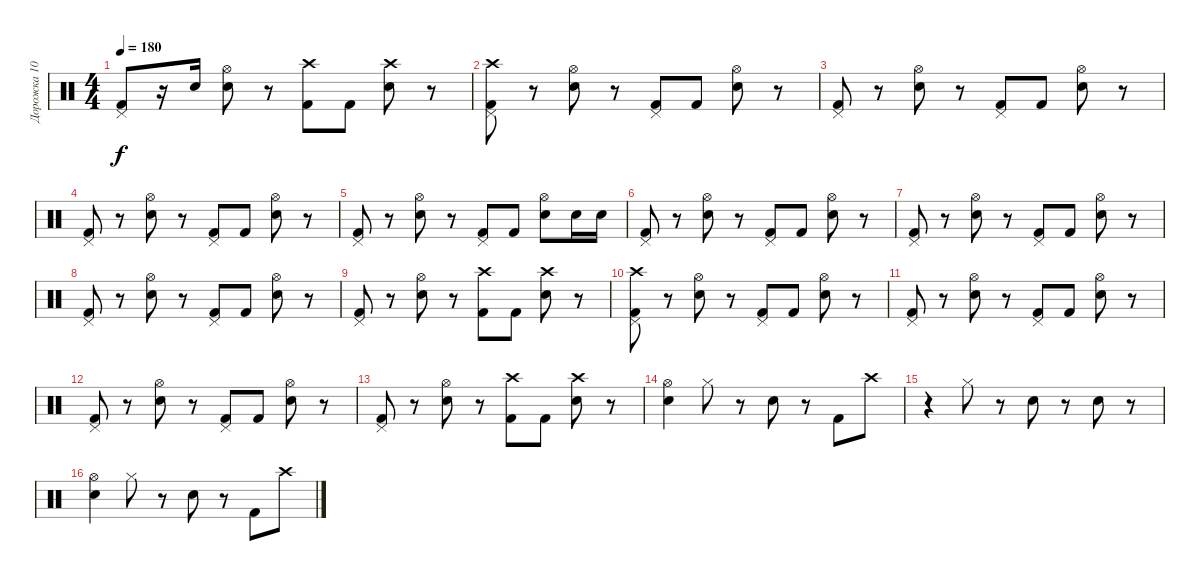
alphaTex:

\track ("Дорожка 10" "Дорожка 10") {instrument percussion}
\staff {score}
\articulation defaults
\ts (4 4)
\tempo 180
\clef neutral
\ks c
("Kick (hit) 2" "Pedal Hi-Hat (hit)").8{dy f} r.16 "Snare (hit) 2".16 ("Snare (hit) 2" "Hi-Hat (open)").8 r.8 ("Kick (hit) 2" "Crash high (hit)").8 "Kick (hit) 2".8 ("Snare (hit) 2" "Crash high (hit)").8 r.8 |
("Kick (hit) 2" "Crash high (hit)" "Pedal Hi-Hat (hit)").8 r.8 ("Snare (hit) 2" "Hi-Hat (open)").8 r.8 ("Kick (hit) 2" "Pedal Hi-Hat (hit)").8 "Kick (hit) 2".8 ("Snare (hit) 2" "Hi-Hat (open)").8 r.8 |
("Kick (hit) 2" "Pedal Hi-Hat (hit)").8 r.8 ("Snare (hit) 2" "Hi-Hat (open)").8 r.8 ("Kick (hit) 2" "Pedal Hi-Hat (hit)").8 "Kick (hit) 2".8 ("Snare (hit) 2" "Hi-Hat (open)").8 r.8 |
("Kick (hit) 2" "Pedal Hi-Hat (hit)").8 r.8 ("Snare (hit) 2" "Hi-Hat (open)").8 r.8 ("Kick (hit) 2" "Pedal Hi-Hat (hit)").8 "Kick (hit) 2".8 ("Snare (hit) 2" "Hi-Hat (open)").8 r.8 |
("Kick (hit) 2" "Pedal Hi-Hat (hit)").8 r.8 ("Snare (hit) 2" "Hi-Hat (open)").8 r.8 ("Kick (hit) 2" "Pedal Hi-Hat (hit)").8 "Kick (hit) 2".8 ("Snare (hit) 2" "Hi-Hat (open)").8 "Snare (hit) 2".16 "Snare (hit) 2".16 |
("Kick (hit) 2" "Pedal Hi-Hat (hit)").8 r.8 ("Snare (hit) 2" "Hi-Hat (open)").8 r.8 ("Kick (hit) 2" "Pedal Hi-Hat (hit)").8 "Kick (hit) 2".8 ("Snare (hit) 2" "Hi-Hat (open)").8 r.8 |
("Kick (hit) 2" "Pedal Hi-Hat (hit)").8 r.8 ("Snare (hit) 2" "Hi-Hat (open)").8 r.8 ("Kick (hit) 2" "Pedal Hi-Hat (hit)").8 "Kick (hit) 2".8 ("Snare (hit) 2" "Hi-Hat (open)").8 r.8 |
("Kick (hit) 2" "Pedal Hi-Hat (hit)").8 r.8 ("Snare (hit) 2" "Hi-Hat (open)").8 r.8 ("Kick (hit) 2" "Pedal Hi-Hat (hit)").8 "Kick (hit) 2".8 ("Snare (hit) 2" "Hi-Hat (open)").8 r.8 |
("Kick (hit) 2" "Pedal Hi-Hat (hit)").8 r.8 ("Snare (hit) 2" "Hi-Hat (open)").8 r.8 ("Kick (hit) 2" "Crash high (hit)").8 "Kick (hit) 2".8 ("Snare (hit) 2" "Crash high (hit)").8 r.8 |
("Kick (hit) 2" "Crash high (hit)" "Pedal Hi-Hat (hit)").8 r.8 ("Snare (hit) 2" "Hi-Hat (open)").8 r.8 ("Kick (hit) 2" "Pedal Hi-Hat (hit)").8 "Kick (hit) 2".8 ("Snare (hit) 2" "Hi-Hat (open)").8 r.8 |
("Kick (hit) 2" "Pedal Hi-Hat (hit)").8 r.8 ("Snare (hit) 2" "Hi-Hat (open)").8 r.8 ("Kick (hit) 2" "Pedal Hi-Hat (hit)").8 "Kick (hit) 2".8 ("Snare (hit) 2" "Hi-Hat (open)").8 r.8 |
("Kick (hit) 2" "Pedal Hi-Hat (hit)").8 r.8 ("Snare (hit) 2" "Hi-Hat (open)").8 r.8 ("Kick (hit) 2" "Pedal Hi-Hat (hit)").8 "Kick (hit) 2".8 ("Snare (hit) 2" "Hi-Hat (open)").8 r.8 |
("Kick (hit) 2" "Pedal Hi-Hat (hit)").8 r.8 ("Snare (hit) 2" "Hi-Hat (open)").8 r.8 ("Kick (hit) 2" "Crash high (hit)").8 "Kick (hit) 2".8 ("Snare (hit) 2" "Crash high (hit)").8 r.8 |
("Snare (hit) 2" "Hi-Hat (open)").4 "Hi-Hat (closed)".8 r.8 "Snare (hit) 2".8 r.8 "Kick (hit) 2".8 "Crash high (hit)".8 |
r.4 "Hi-Hat (closed)".8 r.8 "Snare (hit) 2".8 r.8 "Snare (hit) 2".8 r.8 |
("Snare (hit) 2" "Hi-Hat (open)").4 "Hi-Hat (closed)".8 r.8 "Snare (hit) 2".8 r.8 "Kick (hit) 2".8 "Crash high (hit)".8
